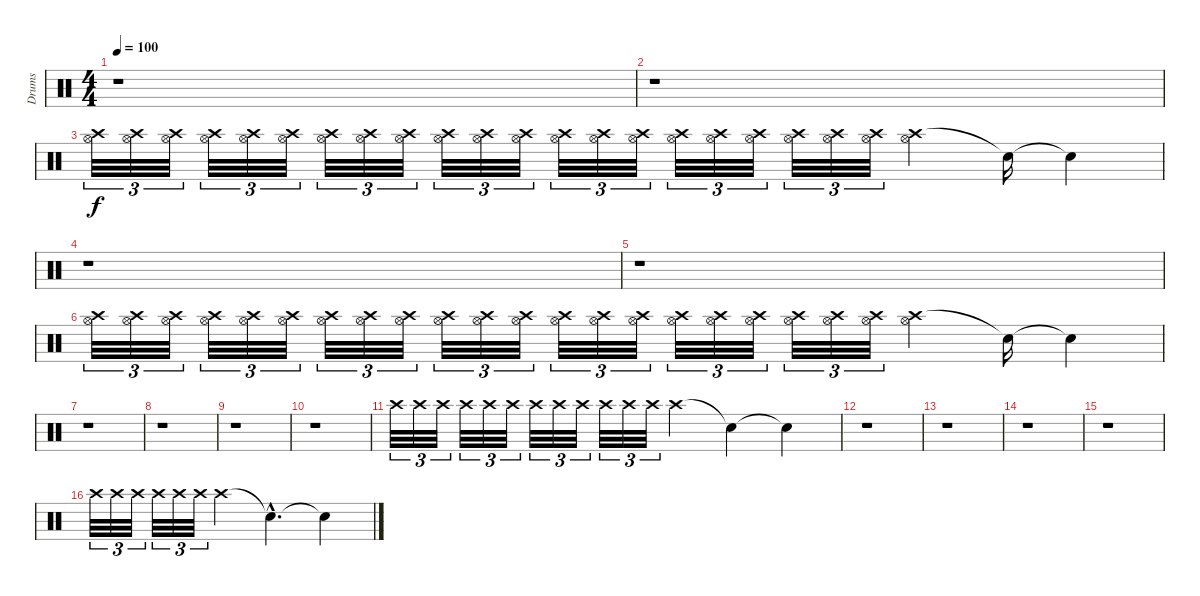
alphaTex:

\track ("Drums" "Drums") {instrument percussion}
\staff {score}
\articulation defaults
\ts (4 4)
\tempo 100
\clef neutral
\ks c
r.1{dy f} |
r.1 |
("Crash high (hit)" "Hi-Hat (open)").32{tu (3 2) volume 1} ("Crash high (hit)" "Hi-Hat (open)").32{tu (3 2) volume 16} ("Crash high (hit)" "Hi-Hat (open)").32{tu (3 2)} ("Crash high (hit)" "Hi-Hat (open)").32{tu (3 2)} ("Crash high (hit)" "Hi-Hat (open)").32{tu (3 2)} ("Crash high (hit)" "Hi-Hat (open)").32{tu (3 2)} ("Crash high (hit)" "Hi-Hat (open)").32{tu (3 2)} ("Crash high (hit)" "Hi-Hat (open)").32{tu (3 2)} ("Crash high (hit)" "Hi-Hat (open)").32{tu (3 2)} ("Crash high (hit)" "Hi-Hat (open)").32{tu (3 2)} ("Crash high (hit)" "Hi-Hat (open)").32{tu (3 2)} ("Crash high (hit)" "Hi-Hat (open)").32{tu (3 2)} ("Crash high (hit)" "Hi-Hat (open)").32{tu (3 2)} ("Crash high (hit)" "Hi-Hat (open)").32{tu (3 2)} ("Crash high (hit)" "Hi-Hat (open)").32{tu (3 2)} ("Crash high (hit)" "Hi-Hat (open)").32{tu (3 2)} ("Crash high (hit)" "Hi-Hat (open)").32{tu (3 2)} ("Crash high (hit)" "Hi-Hat (open)").32{tu (3 2)} ("Crash high (hit)" "Hi-Hat (open)").32{tu (3 2)} ("Crash high (hit)" "Hi-Hat (open)").32{tu (3 2)} ("Crash high (hit)" "Hi-Hat (open)").32{tu (3 2)} ("Crash high (hit)" "Hi-Hat (open)").4 "Snare (hit)"{t}.16 "Snare (hit)"{t}.4 |
r.1 |
r.1 |
("Crash high (hit)" "Hi-Hat (open)").32{tu (3 2) volume 1} ("Crash high (hit)" "Hi-Hat (open)").32{tu (3 2) volume 16} ("Crash high (hit)" "Hi-Hat (open)").32{tu (3 2)} ("Crash high (hit)" "Hi-Hat (open)").32{tu (3 2)} ("Crash high (hit)" "Hi-Hat (open)").32{tu (3 2)} ("Crash high (hit)" "Hi-Hat (open)").32{tu (3 2)} ("Crash high (hit)" "Hi-Hat (open)").32{tu (3 2)} ("Crash high (hit)" "Hi-Hat (open)").32{tu (3 2)} ("Crash high (hit)" "Hi-Hat (open)").32{tu (3 2)} ("Crash high (hit)" "Hi-Hat (open)").32{tu (3 2)} ("Crash high (hit)" "Hi-Hat (open)").32{tu (3 2)} ("Crash high (hit)" "Hi-Hat (open)").32{tu (3 2)} ("Crash high (hit)" "Hi-Hat (open)").32{tu (3 2)} ("Crash high (hit)" "Hi-Hat (open)").32{tu (3 2)} ("Crash high (hit)" "Hi-Hat (open)").32{tu (3 2)} ("Crash high (hit)" "Hi-Hat (open)").32{tu (3 2)} ("Crash high (hit)" "Hi-Hat (open)").32{tu (3 2)} ("Crash high (hit)" "Hi-Hat (open)").32{tu (3 2)} ("Crash high (hit)" "Hi-Hat (open)").32{tu (3 2)} ("Crash high (hit)" "Hi-Hat (open)").32{tu (3 2)} ("Crash high (hit)" "Hi-Hat (open)").32{tu (3 2)} ("Crash high (hit)" "Hi-Hat (open)").4 "Snare (hit)"{t}.16 "Snare (hit)"{t}.4 |
r.1 |
r.1 |
r.1 |
r.1 |
"Crash high (hit)".32{tu (3 2) volume 1} "Crash high (hit)".32{tu (3 2) volume 16} "Crash high (hit)".32{tu (3 2)} "Crash high (hit)".32{tu (3 2)} "Crash high (hit)".32{tu (3 2)} "Crash high (hit)".32{tu (3 2)} "Crash high (hit)".32{tu (3 2)} "Crash high (hit)".32{tu (3 2)} "Crash high (hit)".32{tu (3 2)} "Crash high (hit)".32{tu (3 2)} "Crash high (hit)".32{tu (3 2)} "Crash high (hit)".32{tu (3 2)} "Crash high (hit)".4 "Snare (hit)"{t}.4 "Snare (hit)"{t}.4 |
r.1 |
r.1 |
r.1 |
r.1 |
"Crash high (hit)".32{tu (3 2) volume 1} "Crash high (hit)".32{tu (3 2) volume 16} "Crash high (hit)".32{tu (3 2)} "Crash high (hit)".32{tu (3 2)} "Crash high (hit)".32{tu (3 2)} "Crash high (hit)".32{tu (3 2)} "Crash high (hit)".4 "Snare (hit)"{hac t}.4{d} "Snare (hit)"{t}.4
